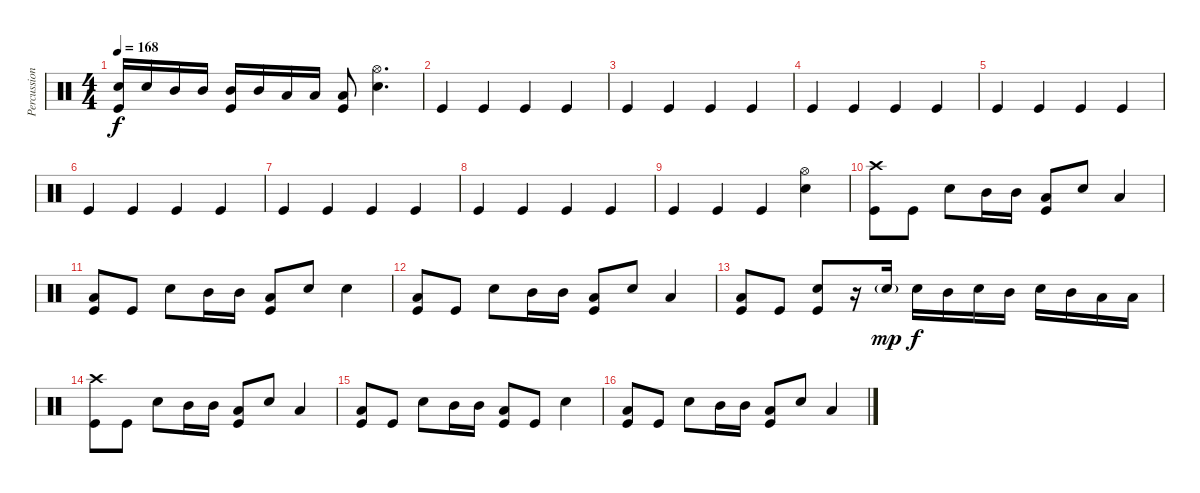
\track ("Percussion" "Percussion") {instrument percussion}
\staff {score}
\articulation defaults
\ts (4 4)
\tempo 168
\clef neutral
\ks c
("Electric Snare (hit)" "Kick (hit)").16{dy f} "Electric Snare (hit)".16 "Mid Tom (hit)".16 "Mid Tom (hit)".16 ("Mid Tom (hit)" "Kick (hit)").16 "Mid Tom (hit)".16 "Low Tom (hit)".16 "Low Tom (hit)".16 ("Low Tom (hit)" "Kick (hit)").8 ("Hi-Hat (open)" "Electric Snare (hit)").4{d} |
"Kick (hit)".4 "Kick (hit)".4 "Kick (hit)".4 "Kick (hit)".4 |
"Kick (hit)".4 "Kick (hit)".4 "Kick (hit)".4 "Kick (hit)".4 |
"Kick (hit)".4 "Kick (hit)".4 "Kick (hit)".4 "Kick (hit)".4 |
"Kick (hit)".4 "Kick (hit)".4 "Kick (hit)".4 "Kick (hit)".4 |
"Kick (hit)".4 "Kick (hit)".4 "Kick (hit)".4 "Kick (hit)".4 |
"Kick (hit)".4 "Kick (hit)".4 "Kick (hit)".4 "Kick (hit)".4 |
"Kick (hit)".4 "Kick (hit)".4 "Kick (hit)".4 "Kick (hit)".4 |
"Kick (hit)".4 "Kick (hit)".4 "Kick (hit)".4 ("Hi-Hat (open)" "Electric Snare (hit)").4 |
("Crash high (hit)" "Kick (hit)").8 "Kick (hit)".8 "Electric Snare (hit)".8 "Mid Tom (hit)".16 "Mid Tom (hit)".16 ("Low Tom (hit)" "Kick (hit)").8 "Electric Snare (hit)".8 "Low Tom (hit)".4 |
("Low Tom (hit)" "Kick (hit)").8 "Kick (hit)".8 "Electric Snare (hit)".8 "Mid Tom (hit)".16 "Mid Tom (hit)".16 ("Low Tom (hit)" "Kick (hit)").8 "Electric Snare (hit)".8 "Electric Snare (hit)".4 |
("Low Tom (hit)" "Kick (hit)").8 "Kick (hit)".8 "Electric Snare (hit)".8 "Mid Tom (hit)".16 "Mid Tom (hit)".16 ("Low Tom (hit)" "Kick (hit)").8 "Electric Snare (hit)".8 "Low Tom (hit)".4 |
("Low Tom (hit)" "Kick (hit)").8 "Kick (hit)".8 ("Electric Snare (hit)" "Kick (hit)").8 r.16 "Electric Snare (hit)"{g}.16{dy mp} "Electric Snare (hit)".16{dy f} "Mid Tom (hit)".16 "Electric Snare (hit)".16 "Mid Tom (hit)".16 "Electric Snare (hit)".16 "Mid Tom (hit)".16 "Low Tom (hit)".16 "Low Tom (hit)".16 |
("Crash high (hit)" "Kick (hit)").8 "Kick (hit)".8 "Electric Snare (hit)".8 "Mid Tom (hit)".16 "Mid Tom (hit)".16 ("Low Tom (hit)" "Kick (hit)").8 "Electric Snare (hit)".8 "Low Tom (hit)".4 |
("Low Tom (hit)" "Kick (hit)").8 "Kick (hit)".8 "Electric Snare (hit)".8 "Mid Tom (hit)".16 "Mid Tom (hit)".16 ("Low Tom (hit)" "Kick (hit)").8 "Kick (hit)".8 "Electric Snare (hit)".4 |
("Low Tom (hit)" "Kick (hit)").8 "Kick (hit)".8 "Electric Snare (hit)".8 "Mid Tom (hit)".16 "Mid Tom (hit)".16 ("Low Tom (hit)" "Kick (hit)").8 "Electric Snare (hit)".8 "Low Tom (hit)".4
